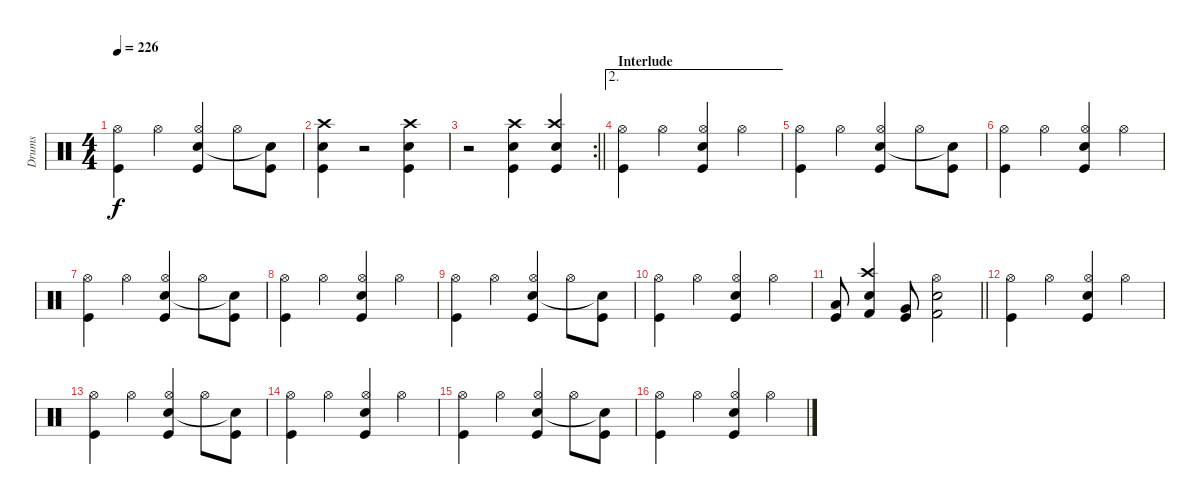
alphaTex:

\track ("Drums" "Drums") {instrument percussion}
\staff {score}
\articulation defaults
\ts (4 4)
\tempo 226
\clef neutral
\ks c
("Kick (hit)" "Hi-Hat (open)").4{dy f} "Hi-Hat (open)".4 ("Kick (hit)" "Snare (hit) 2" "Hi-Hat (open)").4 "Hi-Hat (open)".8 ("Kick (hit)" "Snare (hit)"{t}).8 |
("Kick (hit)" "Snare (hit) 2" "Crash high (hit)").4 r.2 ("Kick (hit)" "Snare (hit) 2" "Crash high (hit)").4 |
\rc 2
\barLineRight lightlight
r.2 ("Kick (hit)" "Snare (hit) 2" "Crash high (hit)").4 ("Kick (hit)" "Electric Snare (hit)" "Crash high (hit)").4 |
\ae 2
\section ("" "Interlude")
("Kick (hit)" "Hi-Hat (open)").4 "Hi-Hat (open)".4 ("Kick (hit)" "Snare (hit) 2" "Hi-Hat (open)").4 "Hi-Hat (open)".4 |
("Kick (hit)" "Hi-Hat (open)").4 "Hi-Hat (open)".4 ("Kick (hit)" "Snare (hit) 2" "Hi-Hat (open)").4 "Hi-Hat (open)".8 ("Kick (hit)" "Snare (hit)"{t}).8 |
("Kick (hit)" "Hi-Hat (open)").4 "Hi-Hat (open)".4 ("Kick (hit)" "Snare (hit) 2" "Hi-Hat (open)").4 "Hi-Hat (open)".4 |
("Kick (hit)" "Hi-Hat (open)").4 "Hi-Hat (open)".4 ("Kick (hit)" "Snare (hit) 2" "Hi-Hat (open)").4 "Hi-Hat (open)".8 ("Kick (hit)" "Snare (hit)"{t}).8 |
("Kick (hit)" "Hi-Hat (open)").4 "Hi-Hat (open)".4 ("Kick (hit)" "Snare (hit) 2" "Hi-Hat (open)").4 "Hi-Hat (open)".4 |
("Kick (hit)" "Hi-Hat (open)").4 "Hi-Hat (open)".4 ("Kick (hit)" "Snare (hit) 2" "Hi-Hat (open)").4 "Hi-Hat (open)".8 ("Kick (hit)" "Snare (hit)"{t}).8 |
("Kick (hit)" "Hi-Hat (open)").4 "Hi-Hat (open)".4 ("Kick (hit)" "Snare (hit) 2" "Hi-Hat (open)").4 "Hi-Hat (open)".4 |
\barLineRight lightlight
("Kick (hit)" "Low Tom (hit)").8 ("Kick (hit) 2" "Snare (hit) 2" "Crash high (hit)").4 ("Kick (hit)" "Very Low Tom (hit)").8 ("Kick (hit) 2" "Electric Snare (hit)" "Hi-Hat (open)").2 |
("Kick (hit)" "Hi-Hat (open)").4 "Hi-Hat (open)".4 ("Kick (hit)" "Snare (hit) 2" "Hi-Hat (open)").4 "Hi-Hat (open)".4 |
("Kick (hit)" "Hi-Hat (open)").4 "Hi-Hat (open)".4 ("Kick (hit)" "Snare (hit) 2" "Hi-Hat (open)").4 "Hi-Hat (open)".8 ("Kick (hit)" "Snare (hit)"{t}).8 |
("Kick (hit)" "Hi-Hat (open)").4 "Hi-Hat (open)".4 ("Kick (hit)" "Snare (hit) 2" "Hi-Hat (open)").4 "Hi-Hat (open)".4 |
("Kick (hit)" "Hi-Hat (open)").4 "Hi-Hat (open)".4 ("Kick (hit)" "Snare (hit) 2" "Hi-Hat (open)").4 "Hi-Hat (open)".8 ("Kick (hit)" "Snare (hit)"{t}).8 |
("Kick (hit)" "Hi-Hat (open)").4 "Hi-Hat (open)".4 ("Kick (hit)" "Snare (hit) 2" "Hi-Hat (open)").4 "Hi-Hat (open)".4
